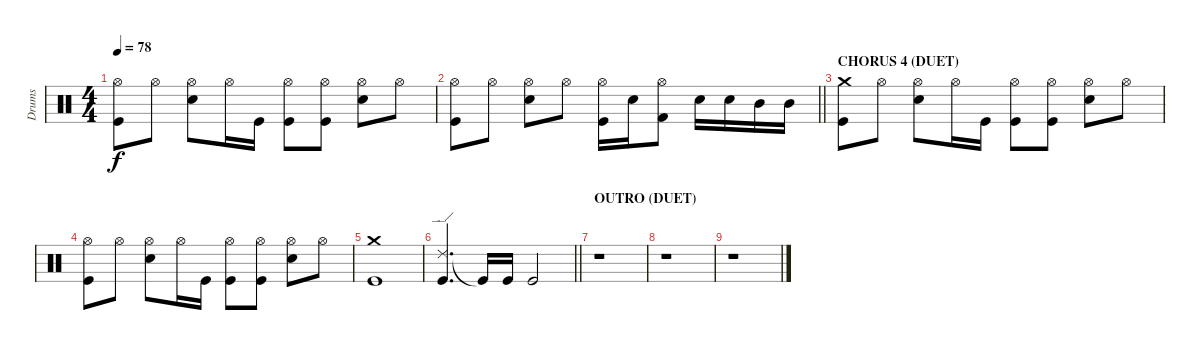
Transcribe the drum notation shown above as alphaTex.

\track ("Drums" "Drums") {instrument percussion}
\staff {score}
\articulation defaults
\ts (4 4)
\tempo 78
\clef neutral
\ks c
("Hi-Hat (open)" "Kick (hit)").8{dy f} "Hi-Hat (open)".8 ("Hi-Hat (open)" "Snare (hit) 2").8 "Hi-Hat (open)".16 "Kick (hit)".16 ("Hi-Hat (open)" "Kick (hit)").8 ("Hi-Hat (open)" "Kick (hit)").8 ("Hi-Hat (open)" "Snare (hit) 2").8 "Hi-Hat (open)".8 |
\barLineRight lightlight
("Hi-Hat (open)" "Kick (hit)").8 "Hi-Hat (open)".8 ("Hi-Hat (open)" "Snare (hit) 2").8 "Hi-Hat (open)".8 ("Kick (hit)" "Hi-Hat (open)").16 "Snare (hit) 2".16 ("Hi-Hat (open)" "Kick (hit) 2").8 "Snare (hit) 2".16 "Snare (hit) 2".16 "Mid Tom (hit)".16 "Mid Tom (hit)".16 |
\section ("" "CHORUS 4 (DUET)")
("Crash medium (hit)" "Kick (hit)").8 "Hi-Hat (open)".8 ("Hi-Hat (open)" "Snare (hit) 2").8 "Hi-Hat (open)".16 "Kick (hit)".16 ("Hi-Hat (open)" "Kick (hit)").8 ("Hi-Hat (open)" "Kick (hit)").8 ("Hi-Hat (open)" "Snare (hit) 2").8 "Hi-Hat (open)".8 |
("Hi-Hat (open)" "Kick (hit)").8 "Hi-Hat (open)".8 ("Hi-Hat (open)" "Snare (hit) 2").8 "Hi-Hat (open)".16 "Kick (hit)".16 ("Hi-Hat (open)" "Kick (hit)").8 ("Hi-Hat (open)" "Kick (hit)").8 ("Hi-Hat (open)" "Snare (hit) 2").8 "Hi-Hat (open)".8 |
("Kick (hit)" "Crash medium (hit)").1 |
\barLineRight lightlight
("Ride (edge) 2" "Kick (hit)").4{d} "Kick (hit)"{t}.16 "Kick (hit)".16 "Kick (hit)".2 |
\section ("" "OUTRO (DUET)")
r.1 |
r.1 |
r.1
